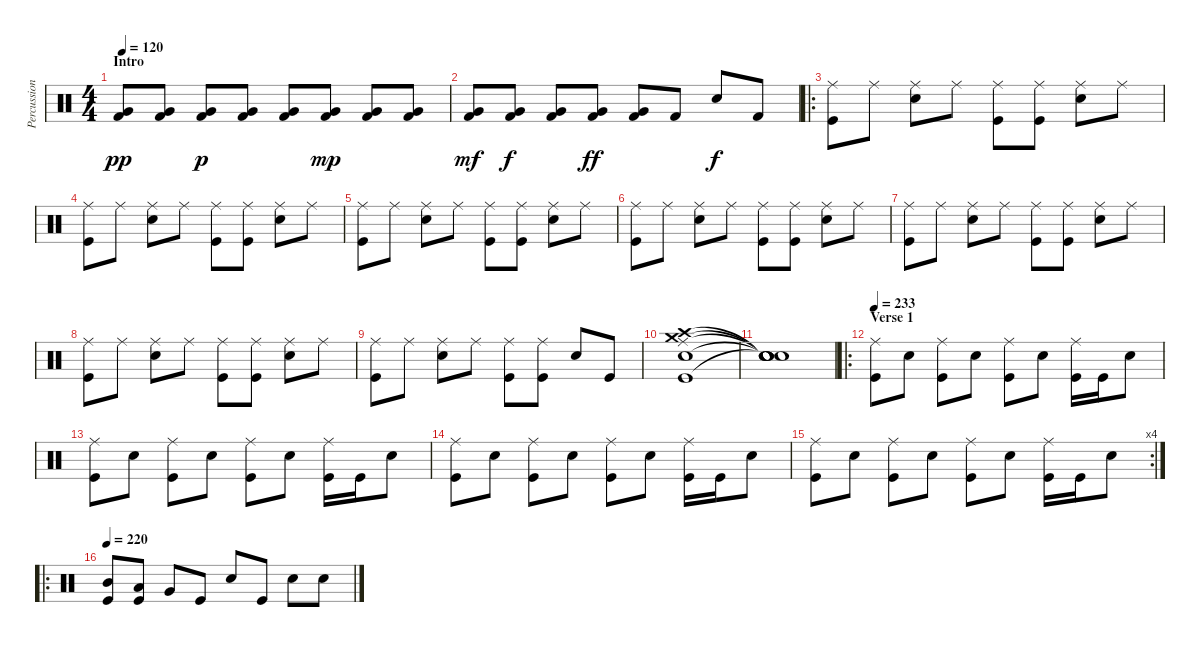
\track ("Percussion" "Percussion") {instrument percussion}
\staff {score}
\articulation defaults
\ts (4 4)
\section ("" "Intro")
\tempo 120
\clef neutral
\ks c
("Very Low Tom (hit)" "Kick (hit) 2").8{dy pp} ("Very Low Tom (hit)" "Kick (hit) 2").8 ("Very Low Tom (hit)" "Kick (hit) 2").8{dy p} ("Very Low Tom (hit)" "Kick (hit) 2").8 ("Very Low Tom (hit)" "Kick (hit) 2").8 ("Very Low Tom (hit)" "Kick (hit) 2").8{dy mp} ("Very Low Tom (hit)" "Kick (hit) 2").8 ("Very Low Tom (hit)" "Kick (hit) 2").8 |
("Very Low Tom (hit)" "Kick (hit) 2").8{dy mf} ("Very Low Tom (hit)" "Kick (hit) 2").8{dy f} ("Very Low Tom (hit)" "Kick (hit) 2").8 ("Very Low Tom (hit)" "Kick (hit) 2").8{dy ff} ("Very Low Tom (hit)" "Kick (hit) 2").8 "Kick (hit) 2".8 "Electric Snare (hit)".8{dy f} "Kick (hit) 2".8 |
\ro
("Ride (middle)" "Kick (hit)").8 "Ride (middle)".8 ("Ride (middle)" "Electric Snare (hit)").8 "Ride (middle)".8 ("Ride (middle)" "Kick (hit)").8 ("Ride (middle)" "Kick (hit)").8 ("Ride (middle)" "Electric Snare (hit)").8 "Ride (middle)".8 |
("Ride (middle)" "Kick (hit)").8 "Ride (middle)".8 ("Ride (middle)" "Electric Snare (hit)").8 "Ride (middle)".8 ("Ride (middle)" "Kick (hit)").8 ("Ride (middle)" "Kick (hit)").8 ("Ride (middle)" "Electric Snare (hit)").8 "Ride (middle)".8 |
("Ride (middle)" "Kick (hit)").8 "Ride (middle)".8 ("Ride (middle)" "Electric Snare (hit)").8 "Ride (middle)".8 ("Ride (middle)" "Kick (hit)").8 ("Ride (middle)" "Kick (hit)").8 ("Ride (middle)" "Electric Snare (hit)").8 "Ride (middle)".8 |
("Ride (middle)" "Kick (hit)").8 "Ride (middle)".8 ("Ride (middle)" "Electric Snare (hit)").8 "Ride (middle)".8 ("Ride (middle)" "Kick (hit)").8 ("Ride (middle)" "Kick (hit)").8 ("Ride (middle)" "Electric Snare (hit)").8 "Ride (middle)".8 |
("Ride (middle)" "Kick (hit)").8 "Ride (middle)".8 ("Ride (middle)" "Electric Snare (hit)").8 "Ride (middle)".8 ("Ride (middle)" "Kick (hit)").8 ("Ride (middle)" "Kick (hit)").8 ("Ride (middle)" "Electric Snare (hit)").8 "Ride (middle)".8 |
("Ride (middle)" "Kick (hit)").8 "Ride (middle)".8 ("Ride (middle)" "Electric Snare (hit)").8 "Ride (middle)".8 ("Ride (middle)" "Kick (hit)").8 ("Ride (middle)" "Kick (hit)").8 ("Ride (middle)" "Electric Snare (hit)").8 "Ride (middle)".8 |
("Ride (middle)" "Kick (hit)").8 "Ride (middle)".8 ("Ride (middle)" "Electric Snare (hit)").8 "Ride (middle)".8 ("Ride (middle)" "Kick (hit)").8 ("Ride (middle)" "Kick (hit)").8 "Electric Snare (hit)".8 "Kick (hit)".8 |
("Crash high (hit)" "Crash medium (hit)" "Ride (middle)" "Electric Snare (hit)" "Kick (hit)").1 |
("Snare (hit)"{t} "Snare (hit)"{t} "Snare (hit)"{t} "Snare (hit)"{t} "Snare (hit)"{t}).1 |
\ro
\section ("" "Verse 1")
\tempo 233
("Ride (middle)" "Kick (hit)").8 "Electric Snare (hit)".8 ("Ride (middle)" "Kick (hit)").8 "Electric Snare (hit)".8 ("Ride (middle)" "Kick (hit)").8 "Electric Snare (hit)".8 ("Ride (middle)" "Kick (hit)").16 "Kick (hit)".16 "Electric Snare (hit)".8 |
("Ride (middle)" "Kick (hit)").8 "Electric Snare (hit)".8 ("Ride (middle)" "Kick (hit)").8 "Electric Snare (hit)".8 ("Ride (middle)" "Kick (hit)").8 "Electric Snare (hit)".8 ("Ride (middle)" "Kick (hit)").16 "Kick (hit)".16 "Electric Snare (hit)".8 |
("Ride (middle)" "Kick (hit)").8 "Electric Snare (hit)".8 ("Ride (middle)" "Kick (hit)").8 "Electric Snare (hit)".8 ("Ride (middle)" "Kick (hit)").8 "Electric Snare (hit)".8 ("Ride (middle)" "Kick (hit)").16 "Kick (hit)".16 "Electric Snare (hit)".8 |
\rc 4
("Ride (middle)" "Kick (hit)").8 "Electric Snare (hit)".8 ("Ride (middle)" "Kick (hit)").8 "Electric Snare (hit)".8 ("Ride (middle)" "Kick (hit)").8 "Electric Snare (hit)".8 ("Ride (middle)" "Kick (hit)").16 "Kick (hit)".16 "Electric Snare (hit)".8 |
\ro
\tempo 220
("Mid Tom (hit)" "Kick (hit)").8 ("Low Tom (hit)" "Kick (hit)").8 "Very Low Tom (hit)".8 "Kick (hit)".8 "Electric Snare (hit)".8 "Kick (hit)".8 "Electric Snare (hit)".8 "Electric Snare (hit)".8
